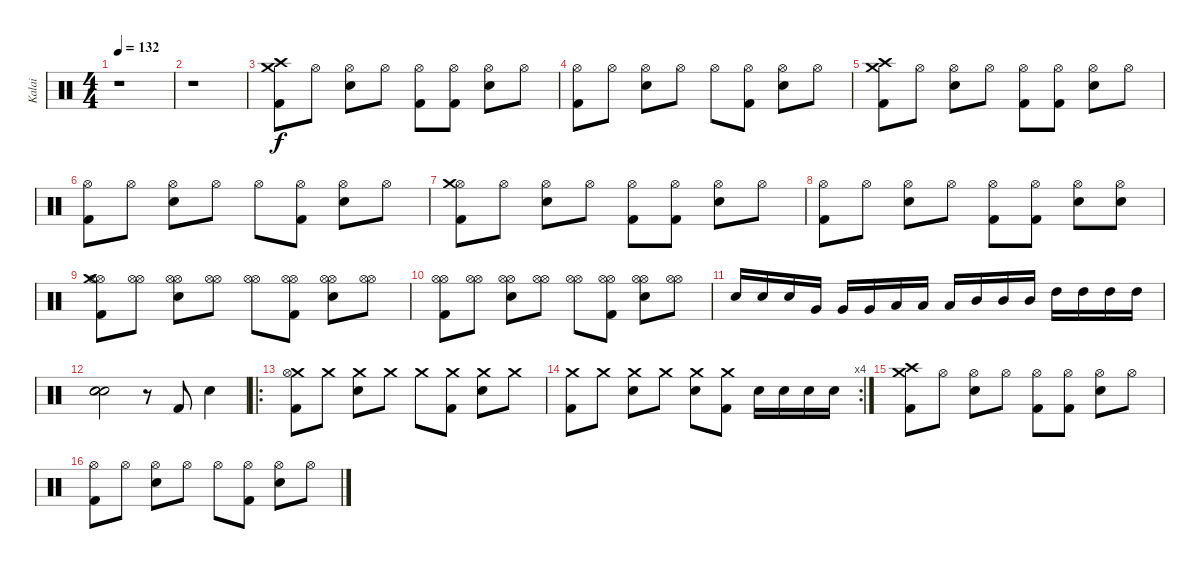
\track ("Kalai" "Kalai") {instrument percussion}
\staff {score}
\articulation defaults
\ts (4 4)
\tempo 132
\clef neutral
\ks c
r.1{dy f} |
r.1 |
("Crash medium (hit)" "Crash high (hit)" "Kick (hit) 2").8 "Hi-Hat (open)".8 ("Hi-Hat (open)" "Electric Snare (hit)").8 "Hi-Hat (open)".8 ("Hi-Hat (open)" "Kick (hit) 2").8 ("Hi-Hat (open)" "Kick (hit) 2").8 ("Hi-Hat (open)" "Electric Snare (hit)").8 "Hi-Hat (open)".8 |
("Hi-Hat (open)" "Kick (hit) 2").8 "Hi-Hat (open)".8 ("Hi-Hat (open)" "Electric Snare (hit)").8 "Hi-Hat (open)".8 "Hi-Hat (open)".8 ("Hi-Hat (open)" "Kick (hit) 2").8 ("Hi-Hat (open)" "Electric Snare (hit)").8 "Hi-Hat (open)".8 |
("Crash medium (hit)" "Crash high (hit)" "Kick (hit) 2").8 "Hi-Hat (open)".8 ("Hi-Hat (open)" "Electric Snare (hit)").8 "Hi-Hat (open)".8 ("Hi-Hat (open)" "Kick (hit) 2").8 ("Hi-Hat (open)" "Kick (hit) 2").8 ("Hi-Hat (open)" "Electric Snare (hit)").8 "Hi-Hat (open)".8 |
("Hi-Hat (open)" "Kick (hit) 2").8 "Hi-Hat (open)".8 ("Hi-Hat (open)" "Electric Snare (hit)").8 "Hi-Hat (open)".8 "Hi-Hat (open)".8 ("Hi-Hat (open)" "Kick (hit) 2").8 ("Hi-Hat (open)" "Electric Snare (hit)").8 "Hi-Hat (open)".8 |
("Hi-Hat (open)" "Crash medium (hit)" "Kick (hit) 2").8 "Hi-Hat (open)".8 ("Hi-Hat (open)" "Electric Snare (hit)").8 "Hi-Hat (open)".8 ("Hi-Hat (open)" "Kick (hit) 2").8 ("Hi-Hat (open)" "Kick (hit) 2").8 ("Hi-Hat (open)" "Electric Snare (hit)").8 "Hi-Hat (open)".8 |
("Hi-Hat (open)" "Kick (hit) 2").8 "Hi-Hat (open)".8 ("Hi-Hat (open)" "Electric Snare (hit)").8 "Hi-Hat (open)".8 ("Hi-Hat (open)" "Kick (hit) 2").8 ("Hi-Hat (open)" "Kick (hit) 2").8 ("Hi-Hat (open)" "Electric Snare (hit)").8 ("Hi-Hat (open)" "Electric Snare (hit)").8 |
("Hi-Hat (open)" "Hi-Hat (open)" "Crash medium (hit)" "Kick (hit) 2").8 ("Hi-Hat (open)" "Hi-Hat (open)").8 ("Hi-Hat (open)" "Hi-Hat (open)" "Electric Snare (hit)").8 ("Hi-Hat (open)" "Hi-Hat (open)").8 ("Hi-Hat (open)" "Hi-Hat (open)").8 ("Hi-Hat (open)" "Hi-Hat (open)" "Kick (hit) 2").8 ("Hi-Hat (open)" "Hi-Hat (open)" "Electric Snare (hit)").8 ("Hi-Hat (open)" "Hi-Hat (open)").8 |
("Hi-Hat (open)" "Hi-Hat (open)" "Kick (hit) 2").8 ("Hi-Hat (open)" "Hi-Hat (open)").8 ("Hi-Hat (open)" "Hi-Hat (open)" "Electric Snare (hit)").8 ("Hi-Hat (open)" "Hi-Hat (open)").8 ("Hi-Hat (open)" "Hi-Hat (open)").8 ("Hi-Hat (open)" "Hi-Hat (open)" "Kick (hit) 2").8 ("Hi-Hat (open)" "Hi-Hat (open)" "Electric Snare (hit)").8 ("Hi-Hat (open)" "Hi-Hat (open)").8 |
"Electric Snare (hit)".16 "Electric Snare (hit)".16 "Electric Snare (hit)".16 "Very Low Tom (hit)".16 "Very Low Tom (hit)".16 "Very Low Tom (hit)".16 "Low Tom (hit)".16 "Low Tom (hit)".16 "Low Tom (hit)".16 "Mid Tom (hit)".16 "Mid Tom (hit)".16 "Mid Tom (hit)".16 "High Tom (hit)".16 "High Tom (hit)".16 "High Tom (hit)".16 "High Tom (hit)".16 |
("Electric Snare (hit)" "Electric Snare (hit)" "Electric Snare (hit)").2 r.8 "Kick (hit) 2".8 "Electric Snare (hit)".4 |
\ro
("Crash medium (hit)" "Hi-Hat (open)" "Kick (hit) 2").8 "Crash medium (hit)".8 ("Crash medium (hit)" "Electric Snare (hit)").8 "Crash medium (hit)".8 "Crash medium (hit)".8 ("Crash medium (hit)" "Kick (hit) 2").8 ("Crash medium (hit)" "Electric Snare (hit)").8 "Crash medium (hit)".8 |
\rc 4
("Crash medium (hit)" "Kick (hit) 2").8 "Crash medium (hit)".8 ("Crash medium (hit)" "Electric Snare (hit)").8 "Crash medium (hit)".8 ("Crash medium (hit)" "Electric Snare (hit)").8 ("Crash medium (hit)" "Kick (hit) 2").8 "Electric Snare (hit)".16 "Electric Snare (hit)".16 "Electric Snare (hit)".16 "Electric Snare (hit)".16 |
("Crash medium (hit)" "Crash high (hit)" "Kick (hit) 2").8 "Hi-Hat (open)".8 ("Hi-Hat (open)" "Electric Snare (hit)").8 "Hi-Hat (open)".8 ("Hi-Hat (open)" "Kick (hit) 2").8 ("Hi-Hat (open)" "Kick (hit) 2").8 ("Hi-Hat (open)" "Electric Snare (hit)").8 "Hi-Hat (open)".8 |
("Hi-Hat (open)" "Kick (hit) 2").8 "Hi-Hat (open)".8 ("Hi-Hat (open)" "Electric Snare (hit)").8 "Hi-Hat (open)".8 "Hi-Hat (open)".8 ("Hi-Hat (open)" "Kick (hit) 2").8 ("Hi-Hat (open)" "Electric Snare (hit)").8 "Hi-Hat (open)".8
